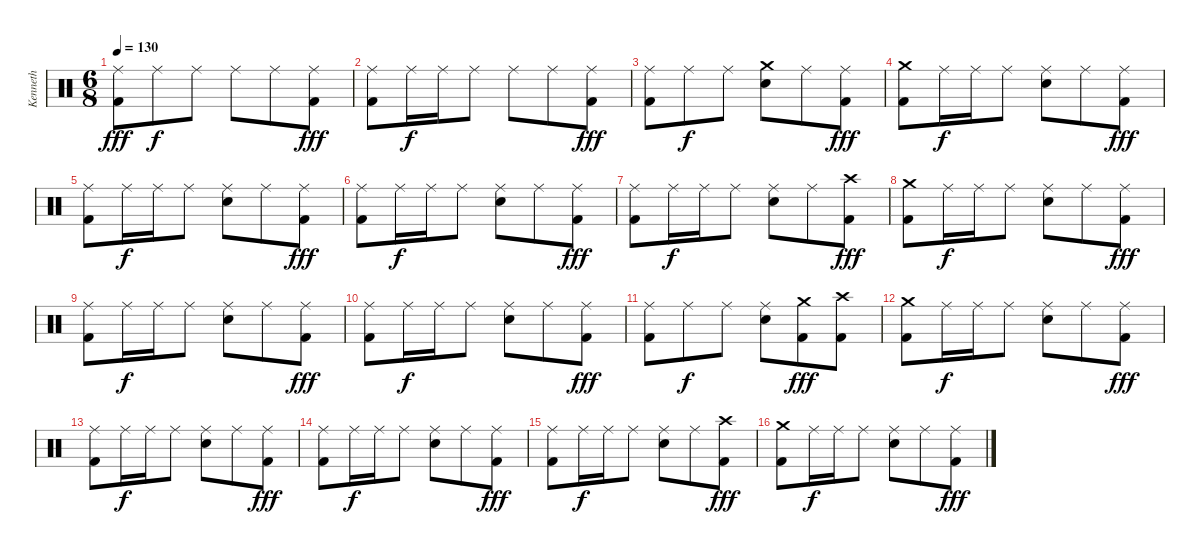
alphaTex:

\track ("Kenneth" "Kenneth") {instrument percussion}
\staff {score}
\articulation defaults
\ts (6 8)
\tempo 130
\clef neutral
\ks c
("Ride (middle)" "Kick (hit) 2").8{dy fff} "Ride (middle)".8{dy f} "Ride (middle)".8 "Ride (middle)".8 "Ride (middle)".8 ("Ride (middle)" "Kick (hit) 2").8{dy fff} |
("Ride (middle)" "Kick (hit) 2").8 "Ride (middle)".16{dy f} "Ride (middle)".16 "Ride (middle)".8 "Ride (middle)".8 "Ride (middle)".8 ("Ride (middle)" "Kick (hit) 2").8{dy fff} |
("Ride (middle)" "Kick (hit) 2").8 "Ride (middle)".8{dy f} "Ride (middle)".8 ("Crash medium (hit)" "Electric Snare (hit)").8 "Ride (middle)".8 ("Ride (middle)" "Kick (hit) 2").8{dy fff} |
("Crash medium (hit)" "Kick (hit) 2").8 "Ride (middle)".16{dy f} "Ride (middle)".16 "Ride (middle)".8 ("Ride (middle)" "Electric Snare (hit)").8 "Ride (middle)".8 ("Ride (middle)" "Kick (hit) 2").8{dy fff} |
("Ride (middle)" "Kick (hit) 2").8 "Ride (middle)".16{dy f} "Ride (middle)".16 "Ride (middle)".8 ("Ride (middle)" "Electric Snare (hit)").8 "Ride (middle)".8 ("Ride (middle)" "Kick (hit) 2").8{dy fff} |
("Ride (middle)" "Kick (hit) 2").8 "Ride (middle)".16{dy f} "Ride (middle)".16 "Ride (middle)".8 ("Ride (middle)" "Electric Snare (hit)").8 "Ride (middle)".8 ("Ride (middle)" "Kick (hit) 2").8{dy fff} |
("Ride (middle)" "Kick (hit) 2").8 "Ride (middle)".16{dy f} "Ride (middle)".16 "Ride (middle)".8 ("Ride (middle)" "Electric Snare (hit)").8 "Ride (middle)".8 ("Crash high (hit)" "Kick (hit) 2").8{dy fff} |
("Crash medium (hit)" "Kick (hit) 2").8 "Ride (middle)".16{dy f} "Ride (middle)".16 "Ride (middle)".8 ("Ride (middle)" "Electric Snare (hit)").8 "Ride (middle)".8 ("Ride (middle)" "Kick (hit) 2").8{dy fff} |
("Ride (middle)" "Kick (hit) 2").8 "Ride (middle)".16{dy f} "Ride (middle)".16 "Ride (middle)".8 ("Ride (middle)" "Electric Snare (hit)").8 "Ride (middle)".8 ("Ride (middle)" "Kick (hit) 2").8{dy fff} |
("Ride (middle)" "Kick (hit) 2").8 "Ride (middle)".16{dy f} "Ride (middle)".16 "Ride (middle)".8 ("Ride (middle)" "Electric Snare (hit)").8 "Ride (middle)".8 ("Ride (middle)" "Kick (hit) 2").8{dy fff} |
("Ride (middle)" "Kick (hit) 2").8 "Ride (middle)".8{dy f} "Ride (middle)".8 ("Ride (middle)" "Electric Snare (hit)").8 ("Crash medium (hit)" "Kick (hit) 2").8{dy fff} ("Crash high (hit)" "Kick (hit) 2").8 |
("Crash medium (hit)" "Kick (hit) 2").8 "Ride (middle)".16{dy f} "Ride (middle)".16 "Ride (middle)".8 ("Ride (middle)" "Electric Snare (hit)").8 "Ride (middle)".8 ("Ride (middle)" "Kick (hit) 2").8{dy fff} |
("Ride (middle)" "Kick (hit) 2").8 "Ride (middle)".16{dy f} "Ride (middle)".16 "Ride (middle)".8 ("Ride (middle)" "Electric Snare (hit)").8 "Ride (middle)".8 ("Ride (middle)" "Kick (hit) 2").8{dy fff} |
("Ride (middle)" "Kick (hit) 2").8 "Ride (middle)".16{dy f} "Ride (middle)".16 "Ride (middle)".8 ("Ride (middle)" "Electric Snare (hit)").8 "Ride (middle)".8 ("Ride (middle)" "Kick (hit) 2").8{dy fff} |
("Ride (middle)" "Kick (hit) 2").8 "Ride (middle)".16{dy f} "Ride (middle)".16 "Ride (middle)".8 ("Ride (middle)" "Electric Snare (hit)").8 "Ride (middle)".8 ("Crash high (hit)" "Kick (hit) 2").8{dy fff} |
("Crash medium (hit)" "Kick (hit) 2").8 "Ride (middle)".16{dy f} "Ride (middle)".16 "Ride (middle)".8 ("Ride (middle)" "Electric Snare (hit)").8 "Ride (middle)".8 ("Ride (middle)" "Kick (hit) 2").8{dy fff}
